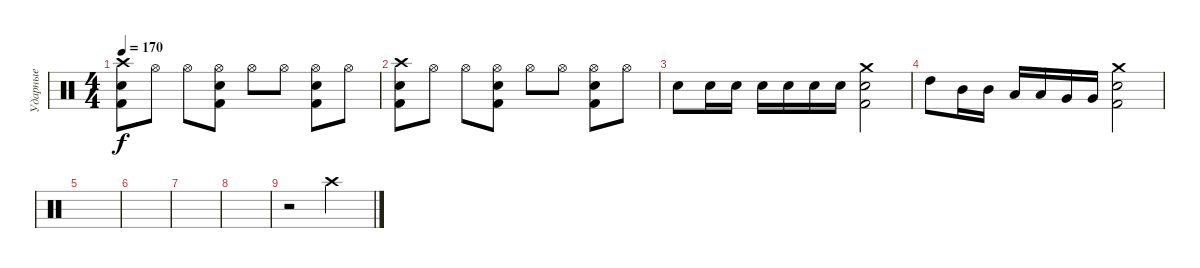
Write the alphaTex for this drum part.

\track ("Ударные" "Ударные") {instrument percussion}
\staff {score}
\articulation defaults
\ts (4 4)
\tempo 170
\clef neutral
\ks c
("Crash high (hit)" "Electric Snare (hit)" "Kick (hit) 2").8{dy f} "Hi-Hat (open)".8 "Hi-Hat (open)".8 ("Electric Snare (hit)" "Hi-Hat (open)" "Kick (hit) 2").8 "Hi-Hat (open)".8 "Hi-Hat (open)".8 ("Electric Snare (hit)" "Hi-Hat (open)" "Kick (hit) 2").8 "Hi-Hat (open)".8 |
("Crash high (hit)" "Electric Snare (hit)" "Kick (hit) 2").8 "Hi-Hat (open)".8 "Hi-Hat (open)".8 ("Electric Snare (hit)" "Hi-Hat (open)" "Kick (hit) 2").8 "Hi-Hat (open)".8 "Hi-Hat (open)".8 ("Electric Snare (hit)" "Hi-Hat (open)" "Kick (hit) 2").8 "Hi-Hat (open)".8 |
"Electric Snare (hit)".8 "Electric Snare (hit)".16 "Electric Snare (hit)".16 "Electric Snare (hit)".16 "Electric Snare (hit)".16 "Electric Snare (hit)".16 "Electric Snare (hit)".16 ("Crash medium (hit)" "Electric Snare (hit)" "Kick (hit) 2").2 |
"High Tom (hit)".8 "Mid Tom (hit)".16 "Mid Tom (hit)".16 "Low Tom (hit)".16 "Low Tom (hit)".16 "Very Low Tom (hit)".16 "Very Low Tom (hit)".16 ("Crash medium (hit)" "Kick (hit) 2" "Electric Snare (hit)").2 |
|
|
|
|
r.2 "Crash high (hit)".2
